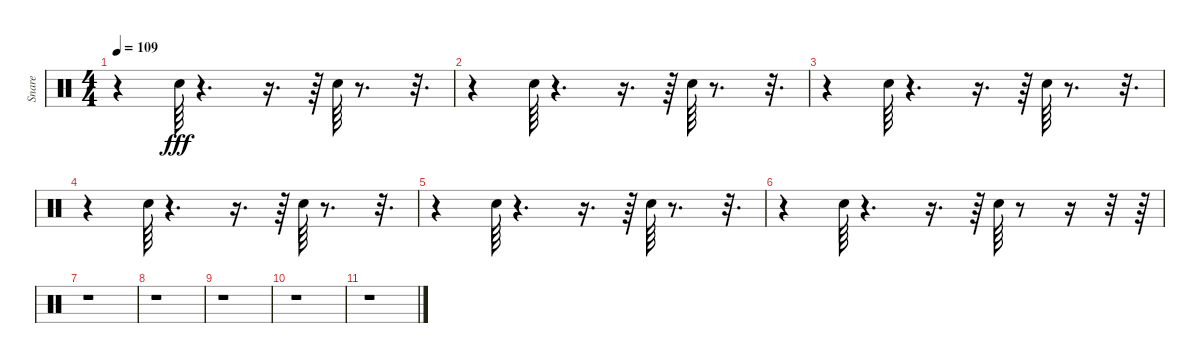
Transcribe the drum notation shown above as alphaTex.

\track ("Snare" "Snare") {instrument percussion}
\staff {score}
\articulation defaults
\ts (4 4)
\tempo 109
\clef neutral
\ks c
r.4{dy fff} "Electric Snare (hit)".64 r.4{d} r.16{d} r.64 "Electric Snare (hit)".64 r.8{d} r.32{d} |
r.4 "Electric Snare (hit)".64 r.4{d} r.16{d} r.64 "Electric Snare (hit)".64 r.8{d} r.32{d} |
r.4 "Electric Snare (hit)".64 r.4{d} r.16{d} r.64 "Electric Snare (hit)".64 r.8{d} r.32{d} |
r.4 "Electric Snare (hit)".64 r.4{d} r.16{d} r.64 "Electric Snare (hit)".64 r.8{d} r.32{d} |
r.4 "Electric Snare (hit)".64 r.4{d} r.16{d} r.64 "Electric Snare (hit)".64 r.8{d} r.32{d} |
r.4 "Electric Snare (hit)".64 r.4{d} r.16{d} r.64 "Electric Snare (hit)".64 r.8 r.16 r.32 r.64 |
r.1 |
r.1 |
r.1 |
r.1 |
r.1
